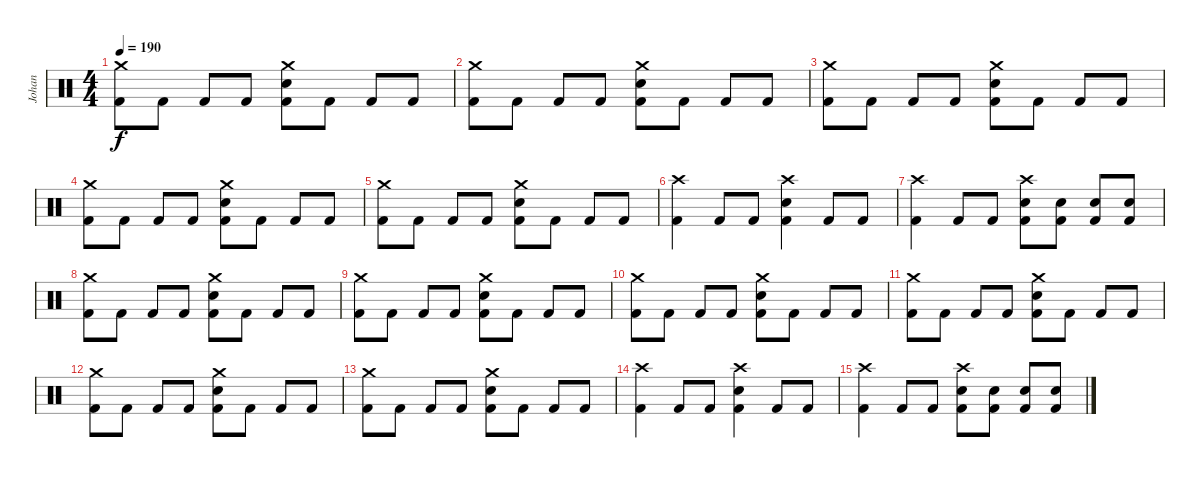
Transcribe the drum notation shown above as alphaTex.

\track ("Johan" "Johan") {instrument percussion}
\staff {score}
\articulation defaults
\ts (4 4)
\tempo 190
\clef neutral
\ks c
("Crash medium (hit)" "Kick (hit) 2").8{dy f} "Kick (hit) 2".8 "Kick (hit) 2".8 "Kick (hit) 2".8 ("Electric Snare (hit)" "Crash medium (hit)" "Kick (hit) 2").8 "Kick (hit) 2".8 "Kick (hit) 2".8 "Kick (hit) 2".8 |
("Crash medium (hit)" "Kick (hit) 2").8 "Kick (hit) 2".8 "Kick (hit) 2".8 "Kick (hit) 2".8 ("Electric Snare (hit)" "Crash medium (hit)" "Kick (hit) 2").8 "Kick (hit) 2".8 "Kick (hit) 2".8 "Kick (hit) 2".8 |
("Crash medium (hit)" "Kick (hit) 2").8 "Kick (hit) 2".8 "Kick (hit) 2".8 "Kick (hit) 2".8 ("Electric Snare (hit)" "Crash medium (hit)" "Kick (hit) 2").8 "Kick (hit) 2".8 "Kick (hit) 2".8 "Kick (hit) 2".8 |
("Crash medium (hit)" "Kick (hit) 2").8 "Kick (hit) 2".8 "Kick (hit) 2".8 "Kick (hit) 2".8 ("Electric Snare (hit)" "Crash medium (hit)" "Kick (hit) 2").8 "Kick (hit) 2".8 "Kick (hit) 2".8 "Kick (hit) 2".8 |
("Crash medium (hit)" "Kick (hit) 2").8 "Kick (hit) 2".8 "Kick (hit) 2".8 "Kick (hit) 2".8 ("Electric Snare (hit)" "Crash medium (hit)" "Kick (hit) 2").8 "Kick (hit) 2".8 "Kick (hit) 2".8 "Kick (hit) 2".8 |
("Crash high (hit)" "Kick (hit) 2").4 "Kick (hit) 2".8 "Kick (hit) 2".8 ("Electric Snare (hit)" "Crash high (hit)" "Kick (hit) 2").4 "Kick (hit) 2".8 "Kick (hit) 2".8 |
("Crash high (hit)" "Kick (hit) 2").4 "Kick (hit) 2".8 "Kick (hit) 2".8 ("Electric Snare (hit)" "Crash high (hit)" "Kick (hit) 2").8 ("Electric Snare (hit)" "Kick (hit) 2").8 ("Electric Snare (hit)" "Kick (hit) 2").8 ("Electric Snare (hit)" "Kick (hit) 2").8 |
("Crash medium (hit)" "Kick (hit) 2").8 "Kick (hit) 2".8 "Kick (hit) 2".8 "Kick (hit) 2".8 ("Electric Snare (hit)" "Crash medium (hit)" "Kick (hit) 2").8 "Kick (hit) 2".8 "Kick (hit) 2".8 "Kick (hit) 2".8 |
("Crash medium (hit)" "Kick (hit) 2").8 "Kick (hit) 2".8 "Kick (hit) 2".8 "Kick (hit) 2".8 ("Electric Snare (hit)" "Crash medium (hit)" "Kick (hit) 2").8 "Kick (hit) 2".8 "Kick (hit) 2".8 "Kick (hit) 2".8 |
("Crash medium (hit)" "Kick (hit) 2").8 "Kick (hit) 2".8 "Kick (hit) 2".8 "Kick (hit) 2".8 ("Electric Snare (hit)" "Crash medium (hit)" "Kick (hit) 2").8 "Kick (hit) 2".8 "Kick (hit) 2".8 "Kick (hit) 2".8 |
("Crash medium (hit)" "Kick (hit) 2").8 "Kick (hit) 2".8 "Kick (hit) 2".8 "Kick (hit) 2".8 ("Electric Snare (hit)" "Crash medium (hit)" "Kick (hit) 2").8 "Kick (hit) 2".8 "Kick (hit) 2".8 "Kick (hit) 2".8 |
("Crash medium (hit)" "Kick (hit) 2").8 "Kick (hit) 2".8 "Kick (hit) 2".8 "Kick (hit) 2".8 ("Electric Snare (hit)" "Crash medium (hit)" "Kick (hit) 2").8 "Kick (hit) 2".8 "Kick (hit) 2".8 "Kick (hit) 2".8 |
("Crash medium (hit)" "Kick (hit) 2").8 "Kick (hit) 2".8 "Kick (hit) 2".8 "Kick (hit) 2".8 ("Electric Snare (hit)" "Crash medium (hit)" "Kick (hit) 2").8 "Kick (hit) 2".8 "Kick (hit) 2".8 "Kick (hit) 2".8 |
("Crash high (hit)" "Kick (hit) 2").4 "Kick (hit) 2".8 "Kick (hit) 2".8 ("Electric Snare (hit)" "Crash high (hit)" "Kick (hit) 2").4 "Kick (hit) 2".8 "Kick (hit) 2".8 |
("Crash high (hit)" "Kick (hit) 2").4 "Kick (hit) 2".8 "Kick (hit) 2".8 ("Electric Snare (hit)" "Crash high (hit)" "Kick (hit) 2").8 ("Electric Snare (hit)" "Kick (hit) 2").8 ("Electric Snare (hit)" "Kick (hit) 2").8 ("Electric Snare (hit)" "Kick (hit) 2").8
